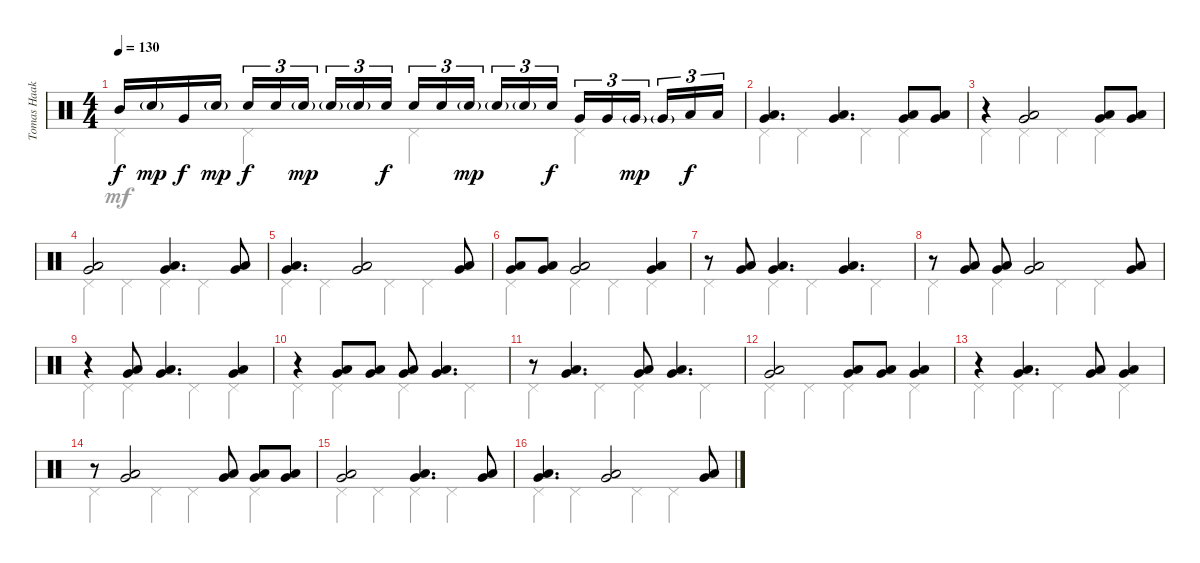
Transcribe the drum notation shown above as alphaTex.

\track ("Tomas Haake" "Tomas Haak") {instrument percussion}
\staff {score}
\articulation defaults
\voice
\ts (4 4)
\tempo 130
\clef neutral
\ks c "Mid Tom (hit)".16{dy f} "Electric Snare (hit)"{g}.16{dy mp} "Very Low Tom (hit)".16{dy f} "Electric Snare (hit)"{g}.16{dy mp} "Electric Snare (hit)".16{tu (3 2) dy f} "Electric Snare (hit)".16{tu (3 2)} "Electric Snare (hit)"{g}.16{tu (3 2) dy mp beam splitsecondary} "Electric Snare (hit)"{g}.16{tu (3 2)} "Electric Snare (hit)"{g}.16{tu (3 2)} "Electric Snare (hit)".16{tu (3 2) dy f} "Electric Snare (hit)".16{tu (3 2)} "Electric Snare (hit)".16{tu (3 2)} "Electric Snare (hit)"{g}.16{tu (3 2) dy mp beam splitsecondary} "Electric Snare (hit)"{g}.16{tu (3 2)} "Electric Snare (hit)"{g}.16{tu (3 2)} "Electric Snare (hit)".16{tu (3 2) dy f} "Very Low Tom (hit)".16{tu (3 2)} "Very Low Tom (hit)".16{tu (3 2)} "Very Low Tom (hit)"{g}.16{tu (3 2) dy mp beam splitsecondary} "Very Low Tom (hit)"{g}.16{tu (3 2)} "Low Floor Tom (hit)".16{tu (3 2) dy f} "Low Floor Tom (hit)".16{tu (3 2)}
|
("Very Low Tom (hit)" "Low Floor Tom (hit)").4{d} ("Very Low Tom (hit)" "Low Floor Tom (hit)").4{d} ("Very Low Tom (hit)" "Low Floor Tom (hit)").8 ("Very Low Tom (hit)" "Low Floor Tom (hit)").8 |
r.4 ("Very Low Tom (hit)" "Low Floor Tom (hit)").2 ("Very Low Tom (hit)" "Low Floor Tom (hit)").8 ("Very Low Tom (hit)" "Low Floor Tom (hit)").8 |
("Very Low Tom (hit)" "Low Floor Tom (hit)").2 ("Very Low Tom (hit)" "Low Floor Tom (hit)").4{d} ("Very Low Tom (hit)" "Low Floor Tom (hit)").8 |
("Very Low Tom (hit)" "Low Floor Tom (hit)").4{d} ("Very Low Tom (hit)" "Low Floor Tom (hit)").2 ("Very Low Tom (hit)" "Low Floor Tom (hit)").8 |
("Very Low Tom (hit)" "Low Floor Tom (hit)").8 ("Very Low Tom (hit)" "Low Floor Tom (hit)").8 ("Very Low Tom (hit)" "Low Floor Tom (hit)").2 ("Very Low Tom (hit)" "Low Floor Tom (hit)").4 |
r.8 ("Very Low Tom (hit)" "Low Floor Tom (hit)").8 ("Very Low Tom (hit)" "Low Floor Tom (hit)").4{d} ("Very Low Tom (hit)" "Low Floor Tom (hit)").4{d} |
r.8 ("Very Low Tom (hit)" "Low Floor Tom (hit)").8 ("Very Low Tom (hit)" "Low Floor Tom (hit)").8 ("Very Low Tom (hit)" "Low Floor Tom (hit)").2 ("Very Low Tom (hit)" "Low Floor Tom (hit)").8 |
r.4 ("Very Low Tom (hit)" "Low Floor Tom (hit)").8 ("Very Low Tom (hit)" "Low Floor Tom (hit)").4{d} ("Very Low Tom (hit)" "Low Floor Tom (hit)").4 |
r.4 ("Very Low Tom (hit)" "Low Floor Tom (hit)").8 ("Very Low Tom (hit)" "Low Floor Tom (hit)").8 ("Very Low Tom (hit)" "Low Floor Tom (hit)").8 ("Very Low Tom (hit)" "Low Floor Tom (hit)").4{d} |
r.8 ("Very Low Tom (hit)" "Low Floor Tom (hit)").4{d} ("Very Low Tom (hit)" "Low Floor Tom (hit)").8 ("Very Low Tom (hit)" "Low Floor Tom (hit)").4{d} |
("Very Low Tom (hit)" "Low Floor Tom (hit)").2 ("Very Low Tom (hit)" "Low Floor Tom (hit)").8 ("Very Low Tom (hit)" "Low Floor Tom (hit)").8 ("Very Low Tom (hit)" "Low Floor Tom (hit)").4 |
r.4 ("Very Low Tom (hit)" "Low Floor Tom (hit)").4{d} ("Very Low Tom (hit)" "Low Floor Tom (hit)").8 ("Very Low Tom (hit)" "Low Floor Tom (hit)").4 |
r.8 ("Very Low Tom (hit)" "Low Floor Tom (hit)").2 ("Very Low Tom (hit)" "Low Floor Tom (hit)").8 ("Very Low Tom (hit)" "Low Floor Tom (hit)").8 ("Very Low Tom (hit)" "Low Floor Tom (hit)").8 |
("Very Low Tom (hit)" "Low Floor Tom (hit)").2 ("Very Low Tom (hit)" "Low Floor Tom (hit)").4{d} ("Very Low Tom (hit)" "Low Floor Tom (hit)").8 |
("Very Low Tom (hit)" "Low Floor Tom (hit)").4{d} ("Very Low Tom (hit)" "Low Floor Tom (hit)").2 ("Very Low Tom (hit)" "Low Floor Tom (hit)").8
\voice
\clef neutral
\ottava regular
\simile none
\ks c "Pedal Hi-Hat (hit)".4{dy mf} "Pedal Hi-Hat (hit)".4 "Pedal Hi-Hat (hit)".4 "Pedal Hi-Hat (hit)".4
|
"Pedal Hi-Hat (hit)".4 "Pedal Hi-Hat (hit)".4 "Pedal Hi-Hat (hit)".4 "Pedal Hi-Hat (hit)".4 |
"Pedal Hi-Hat (hit)".4 "Pedal Hi-Hat (hit)".4 "Pedal Hi-Hat (hit)".4 "Pedal Hi-Hat (hit)".4 |
"Pedal Hi-Hat (hit)".4 "Pedal Hi-Hat (hit)".4 "Pedal Hi-Hat (hit)".4 "Pedal Hi-Hat (hit)".4 |
"Pedal Hi-Hat (hit)".4 "Pedal Hi-Hat (hit)".4 "Pedal Hi-Hat (hit)".4 "Pedal Hi-Hat (hit)".4 |
"Pedal Hi-Hat (hit)".4 "Pedal Hi-Hat (hit)".4 "Pedal Hi-Hat (hit)".4 "Pedal Hi-Hat (hit)".4 |
"Pedal Hi-Hat (hit)".4 "Pedal Hi-Hat (hit)".4 "Pedal Hi-Hat (hit)".4 "Pedal Hi-Hat (hit)".4 |
"Pedal Hi-Hat (hit)".4 "Pedal Hi-Hat (hit)".4 "Pedal Hi-Hat (hit)".4 "Pedal Hi-Hat (hit)".4 |
"Pedal Hi-Hat (hit)".4 "Pedal Hi-Hat (hit)".4 "Pedal Hi-Hat (hit)".4 "Pedal Hi-Hat (hit)".4 |
"Pedal Hi-Hat (hit)".4 "Pedal Hi-Hat (hit)".4 "Pedal Hi-Hat (hit)".4 "Pedal Hi-Hat (hit)".4 |
"Pedal Hi-Hat (hit)".4 "Pedal Hi-Hat (hit)".4 "Pedal Hi-Hat (hit)".4 "Pedal Hi-Hat (hit)".4 |
"Pedal Hi-Hat (hit)".4 "Pedal Hi-Hat (hit)".4 "Pedal Hi-Hat (hit)".4 "Pedal Hi-Hat (hit)".4 |
"Pedal Hi-Hat (hit)".4 "Pedal Hi-Hat (hit)".4 "Pedal Hi-Hat (hit)".4 "Pedal Hi-Hat (hit)".4 |
"Pedal Hi-Hat (hit)".4 "Pedal Hi-Hat (hit)".4 "Pedal Hi-Hat (hit)".4 "Pedal Hi-Hat (hit)".4 |
"Pedal Hi-Hat (hit)".4 "Pedal Hi-Hat (hit)".4 "Pedal Hi-Hat (hit)".4 "Pedal Hi-Hat (hit)".4 |
"Pedal Hi-Hat (hit)".4 "Pedal Hi-Hat (hit)".4 "Pedal Hi-Hat (hit)".4 "Pedal Hi-Hat (hit)".4
